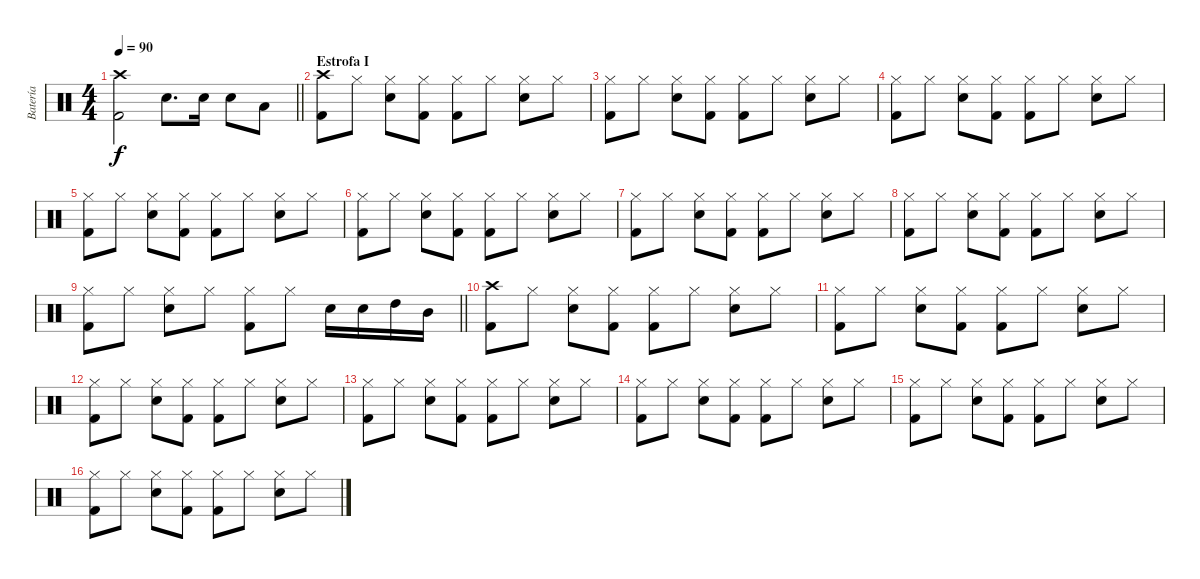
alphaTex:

\track ("Batería" "Batería") {instrument percussion}
\staff {score}
\articulation defaults
\ts (4 4)
\tempo 90
\clef neutral
\barLineRight lightlight
\ks c
("Crash high (hit)" "Kick (hit) 2").2{dy f} "Electric Snare (hit)".8{d} "Electric Snare (hit)".16 "Electric Snare (hit)".8 "Low Tom (hit)".8 |
\section ("" "Estrofa I")
("Kick (hit) 2" "Crash high (hit)").8 "Hi-Hat (closed)".8 ("Electric Snare (hit)" "Hi-Hat (closed)").8 ("Kick (hit) 2" "Hi-Hat (closed)").8 ("Kick (hit) 2" "Hi-Hat (closed)").8 "Hi-Hat (closed)".8 ("Electric Snare (hit)" "Hi-Hat (closed)").8 "Hi-Hat (closed)".8 |
("Kick (hit) 2" "Hi-Hat (closed)").8 "Hi-Hat (closed)".8 ("Electric Snare (hit)" "Hi-Hat (closed)").8 ("Kick (hit) 2" "Hi-Hat (closed)").8 ("Kick (hit) 2" "Hi-Hat (closed)").8 "Hi-Hat (closed)".8 ("Electric Snare (hit)" "Hi-Hat (closed)").8 "Hi-Hat (closed)".8 |
("Kick (hit) 2" "Hi-Hat (closed)").8 "Hi-Hat (closed)".8 ("Electric Snare (hit)" "Hi-Hat (closed)").8 ("Kick (hit) 2" "Hi-Hat (closed)").8 ("Kick (hit) 2" "Hi-Hat (closed)").8 "Hi-Hat (closed)".8 ("Electric Snare (hit)" "Hi-Hat (closed)").8 "Hi-Hat (closed)".8 |
("Kick (hit) 2" "Hi-Hat (closed)").8 "Hi-Hat (closed)".8 ("Electric Snare (hit)" "Hi-Hat (closed)").8 ("Kick (hit) 2" "Hi-Hat (closed)").8 ("Kick (hit) 2" "Hi-Hat (closed)").8 "Hi-Hat (closed)".8 ("Electric Snare (hit)" "Hi-Hat (closed)").8 "Hi-Hat (closed)".8 |
("Kick (hit) 2" "Hi-Hat (closed)").8 "Hi-Hat (closed)".8 ("Electric Snare (hit)" "Hi-Hat (closed)").8 ("Kick (hit) 2" "Hi-Hat (closed)").8 ("Kick (hit) 2" "Hi-Hat (closed)").8 "Hi-Hat (closed)".8 ("Electric Snare (hit)" "Hi-Hat (closed)").8 "Hi-Hat (closed)".8 |
("Kick (hit) 2" "Hi-Hat (closed)").8 "Hi-Hat (closed)".8 ("Electric Snare (hit)" "Hi-Hat (closed)").8 ("Kick (hit) 2" "Hi-Hat (closed)").8 ("Kick (hit) 2" "Hi-Hat (closed)").8 "Hi-Hat (closed)".8 ("Electric Snare (hit)" "Hi-Hat (closed)").8 "Hi-Hat (closed)".8 |
("Kick (hit) 2" "Hi-Hat (closed)").8 "Hi-Hat (closed)".8 ("Electric Snare (hit)" "Hi-Hat (closed)").8 ("Kick (hit) 2" "Hi-Hat (closed)").8 ("Kick (hit) 2" "Hi-Hat (closed)").8 "Hi-Hat (closed)".8 ("Electric Snare (hit)" "Hi-Hat (closed)").8 "Hi-Hat (closed)".8 |
\barLineRight lightlight
("Kick (hit) 2" "Hi-Hat (closed)").8 "Hi-Hat (closed)".8 ("Electric Snare (hit)" "Hi-Hat (closed)").8 "Hi-Hat (closed)".8 ("Kick (hit) 2" "Hi-Hat (closed)").8 "Hi-Hat (closed)".8 "Electric Snare (hit)".16 "Electric Snare (hit)".16 "High Tom (hit)".16 "Mid Tom (hit)".16 |
("Kick (hit) 2" "Crash high (hit)").8 "Hi-Hat (closed)".8 ("Electric Snare (hit)" "Hi-Hat (closed)").8 ("Kick (hit) 2" "Hi-Hat (closed)").8 ("Kick (hit) 2" "Hi-Hat (closed)").8 "Hi-Hat (closed)".8 ("Electric Snare (hit)" "Hi-Hat (closed)").8 "Hi-Hat (closed)".8 |
("Kick (hit) 2" "Hi-Hat (closed)").8 "Hi-Hat (closed)".8 ("Electric Snare (hit)" "Hi-Hat (closed)").8 ("Kick (hit) 2" "Hi-Hat (closed)").8 ("Kick (hit) 2" "Hi-Hat (closed)").8 "Hi-Hat (closed)".8 ("Electric Snare (hit)" "Hi-Hat (closed)").8 "Hi-Hat (closed)".8 |
("Kick (hit) 2" "Hi-Hat (closed)").8 "Hi-Hat (closed)".8 ("Electric Snare (hit)" "Hi-Hat (closed)").8 ("Kick (hit) 2" "Hi-Hat (closed)").8 ("Kick (hit) 2" "Hi-Hat (closed)").8 "Hi-Hat (closed)".8 ("Electric Snare (hit)" "Hi-Hat (closed)").8 "Hi-Hat (closed)".8 |
("Kick (hit) 2" "Hi-Hat (closed)").8 "Hi-Hat (closed)".8 ("Electric Snare (hit)" "Hi-Hat (closed)").8 ("Kick (hit) 2" "Hi-Hat (closed)").8 ("Kick (hit) 2" "Hi-Hat (closed)").8 "Hi-Hat (closed)".8 ("Electric Snare (hit)" "Hi-Hat (closed)").8 "Hi-Hat (closed)".8 |
("Kick (hit) 2" "Hi-Hat (closed)").8 "Hi-Hat (closed)".8 ("Electric Snare (hit)" "Hi-Hat (closed)").8 ("Kick (hit) 2" "Hi-Hat (closed)").8 ("Kick (hit) 2" "Hi-Hat (closed)").8 "Hi-Hat (closed)".8 ("Electric Snare (hit)" "Hi-Hat (closed)").8 "Hi-Hat (closed)".8 |
("Kick (hit) 2" "Hi-Hat (closed)").8 "Hi-Hat (closed)".8 ("Electric Snare (hit)" "Hi-Hat (closed)").8 ("Kick (hit) 2" "Hi-Hat (closed)").8 ("Kick (hit) 2" "Hi-Hat (closed)").8 "Hi-Hat (closed)".8 ("Electric Snare (hit)" "Hi-Hat (closed)").8 "Hi-Hat (closed)".8 |
("Kick (hit) 2" "Hi-Hat (closed)").8 "Hi-Hat (closed)".8 ("Electric Snare (hit)" "Hi-Hat (closed)").8 ("Kick (hit) 2" "Hi-Hat (closed)").8 ("Kick (hit) 2" "Hi-Hat (closed)").8 "Hi-Hat (closed)".8 ("Electric Snare (hit)" "Hi-Hat (closed)").8 "Hi-Hat (closed)".8
